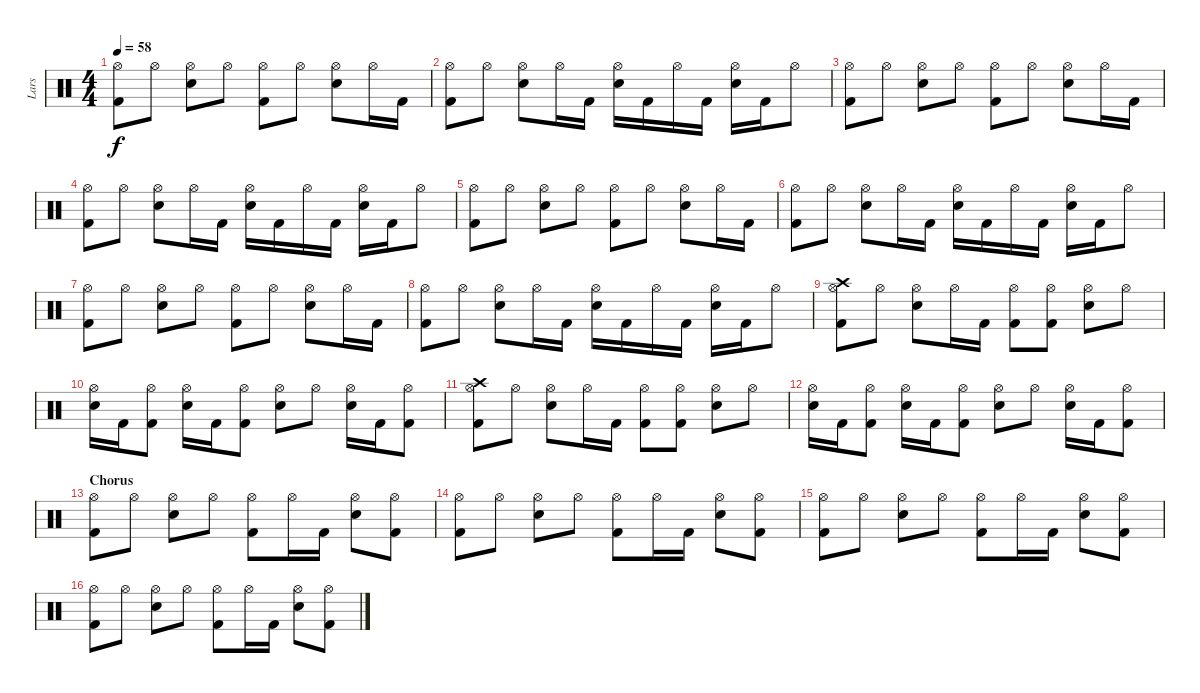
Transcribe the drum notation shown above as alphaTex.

\track ("Lars " "Lars ") {instrument percussion}
\staff {score}
\articulation defaults
\ts (4 4)
\tempo 58
\clef neutral
\ks c
("Kick (hit) 2" "Hi-Hat (open)").8{dy f} "Hi-Hat (open)".8 ("Snare (hit) 2" "Hi-Hat (open)").8 "Hi-Hat (open)".8 ("Kick (hit) 2" "Hi-Hat (open)").8 "Hi-Hat (open)".8 ("Snare (hit) 2" "Hi-Hat (open)").8 "Hi-Hat (open)".16 "Kick (hit) 2".16 |
("Kick (hit) 2" "Hi-Hat (open)").8 "Hi-Hat (open)".8 ("Snare (hit) 2" "Hi-Hat (open)").8 "Hi-Hat (open)".16 "Kick (hit) 2".16 ("Snare (hit) 2" "Hi-Hat (open)").16 "Kick (hit) 2".16 "Hi-Hat (open)".16 "Kick (hit) 2".16 ("Snare (hit) 2" "Hi-Hat (open)").16 "Kick (hit) 2".16 "Hi-Hat (open)".8 |
("Kick (hit) 2" "Hi-Hat (open)").8 "Hi-Hat (open)".8 ("Snare (hit) 2" "Hi-Hat (open)").8 "Hi-Hat (open)".8 ("Kick (hit) 2" "Hi-Hat (open)").8 "Hi-Hat (open)".8 ("Snare (hit) 2" "Hi-Hat (open)").8 "Hi-Hat (open)".16 "Kick (hit) 2".16 |
("Kick (hit) 2" "Hi-Hat (open)").8 "Hi-Hat (open)".8 ("Snare (hit) 2" "Hi-Hat (open)").8 "Hi-Hat (open)".16 "Kick (hit) 2".16 ("Snare (hit) 2" "Hi-Hat (open)").16 "Kick (hit) 2".16 "Hi-Hat (open)".16 "Kick (hit) 2".16 ("Snare (hit) 2" "Hi-Hat (open)").16 "Kick (hit) 2".16 "Hi-Hat (open)".8 |
("Kick (hit) 2" "Hi-Hat (open)").8 "Hi-Hat (open)".8 ("Snare (hit) 2" "Hi-Hat (open)").8 "Hi-Hat (open)".8 ("Kick (hit) 2" "Hi-Hat (open)").8 "Hi-Hat (open)".8 ("Snare (hit) 2" "Hi-Hat (open)").8 "Hi-Hat (open)".16 "Kick (hit) 2".16 |
("Kick (hit) 2" "Hi-Hat (open)").8 "Hi-Hat (open)".8 ("Snare (hit) 2" "Hi-Hat (open)").8 "Hi-Hat (open)".16 "Kick (hit) 2".16 ("Snare (hit) 2" "Hi-Hat (open)").16 "Kick (hit) 2".16 "Hi-Hat (open)".16 "Kick (hit) 2".16 ("Snare (hit) 2" "Hi-Hat (open)").16 "Kick (hit) 2".16 "Hi-Hat (open)".8 |
("Kick (hit) 2" "Hi-Hat (open)").8 "Hi-Hat (open)".8 ("Snare (hit) 2" "Hi-Hat (open)").8 "Hi-Hat (open)".8 ("Kick (hit) 2" "Hi-Hat (open)").8 "Hi-Hat (open)".8 ("Snare (hit) 2" "Hi-Hat (open)").8 "Hi-Hat (open)".16 "Kick (hit) 2".16 |
("Kick (hit) 2" "Hi-Hat (open)").8 "Hi-Hat (open)".8 ("Snare (hit) 2" "Hi-Hat (open)").8 "Hi-Hat (open)".16 "Kick (hit) 2".16 ("Snare (hit) 2" "Hi-Hat (open)").16 "Kick (hit) 2".16 "Hi-Hat (open)".16 "Kick (hit) 2".16 ("Snare (hit) 2" "Hi-Hat (open)").16 "Kick (hit) 2".16 "Hi-Hat (open)".8 |
("Kick (hit) 2" "Hi-Hat (open)" "Crash high (hit)").8 "Hi-Hat (open)".8 ("Snare (hit) 2" "Hi-Hat (open)").8 "Hi-Hat (open)".16 "Kick (hit) 2".16 ("Kick (hit) 2" "Hi-Hat (open)").8 ("Kick (hit) 2" "Hi-Hat (open)").8 ("Snare (hit) 2" "Hi-Hat (open)").8 "Hi-Hat (open)".8 |
("Snare (hit) 2" "Hi-Hat (open)").16 "Kick (hit) 2".16 ("Kick (hit) 2" "Hi-Hat (open)").8 ("Snare (hit) 2" "Hi-Hat (open)").16 "Kick (hit) 2".16 ("Kick (hit) 2" "Hi-Hat (open)").8 ("Snare (hit) 2" "Hi-Hat (open)").8 "Hi-Hat (open)".8 ("Snare (hit) 2" "Hi-Hat (open)").16 "Kick (hit) 2".16 ("Kick (hit) 2" "Hi-Hat (open)").8 |
("Kick (hit) 2" "Hi-Hat (open)" "Crash high (hit)").8 "Hi-Hat (open)".8 ("Snare (hit) 2" "Hi-Hat (open)").8 "Hi-Hat (open)".16 "Kick (hit) 2".16 ("Kick (hit) 2" "Hi-Hat (open)").8 ("Kick (hit) 2" "Hi-Hat (open)").8 ("Snare (hit) 2" "Hi-Hat (open)").8 "Hi-Hat (open)".8 |
("Snare (hit) 2" "Hi-Hat (open)").16 "Kick (hit) 2".16 ("Kick (hit) 2" "Hi-Hat (open)").8 ("Snare (hit) 2" "Hi-Hat (open)").16 "Kick (hit) 2".16 ("Kick (hit) 2" "Hi-Hat (open)").8 ("Snare (hit) 2" "Hi-Hat (open)").8 "Hi-Hat (open)".8 ("Snare (hit) 2" "Hi-Hat (open)").16 "Kick (hit) 2".16 ("Kick (hit) 2" "Hi-Hat (open)").8 |
\section ("" "Chorus")
("Kick (hit) 2" "Hi-Hat (open)").8 "Hi-Hat (open)".8 ("Snare (hit) 2" "Hi-Hat (open)").8 "Hi-Hat (open)".8 ("Kick (hit) 2" "Hi-Hat (open)").8 "Hi-Hat (open)".16 "Kick (hit) 2".16 ("Snare (hit) 2" "Hi-Hat (open)").8 ("Kick (hit) 2" "Hi-Hat (open)").8 |
("Kick (hit) 2" "Hi-Hat (open)").8 "Hi-Hat (open)".8 ("Snare (hit) 2" "Hi-Hat (open)").8 "Hi-Hat (open)".8 ("Kick (hit) 2" "Hi-Hat (open)").8 "Hi-Hat (open)".16 "Kick (hit) 2".16 ("Snare (hit) 2" "Hi-Hat (open)").8 ("Kick (hit) 2" "Hi-Hat (open)").8 |
("Kick (hit) 2" "Hi-Hat (open)").8 "Hi-Hat (open)".8 ("Snare (hit) 2" "Hi-Hat (open)").8 "Hi-Hat (open)".8 ("Kick (hit) 2" "Hi-Hat (open)").8 "Hi-Hat (open)".16 "Kick (hit) 2".16 ("Snare (hit) 2" "Hi-Hat (open)").8 ("Kick (hit) 2" "Hi-Hat (open)").8 |
("Kick (hit) 2" "Hi-Hat (open)").8 "Hi-Hat (open)".8 ("Snare (hit) 2" "Hi-Hat (open)").8 "Hi-Hat (open)".8 ("Kick (hit) 2" "Hi-Hat (open)").8 "Hi-Hat (open)".16 "Kick (hit) 2".16 ("Snare (hit) 2" "Hi-Hat (open)").8 ("Kick (hit) 2" "Hi-Hat (open)").8
